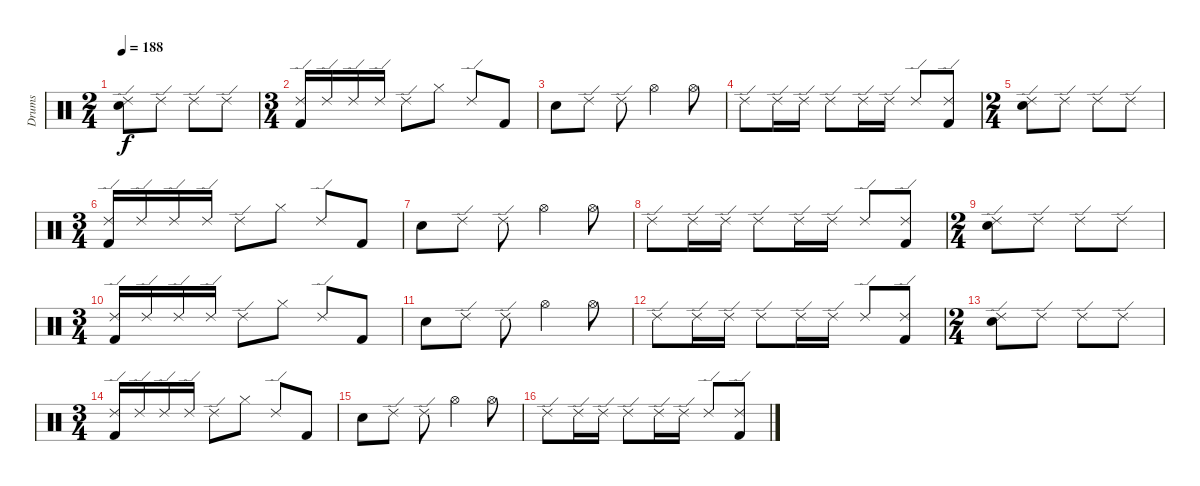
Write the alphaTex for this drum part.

\track ("Drums" "Drums") {instrument percussion}
\staff {score}
\articulation defaults
\ts (2 4)
\tempo 188
\clef neutral
\ks c
("Electric Snare (hit)" "Ride (edge) 2").8{dy f} "Ride (edge) 2".8 "Ride (edge) 2".8 "Ride (edge) 2".8 |
\ts (3 4)
("Ride (edge) 2" "Kick (hit) 2").16 "Ride (edge) 2".16 "Ride (edge) 2".16 "Ride (edge) 2".16 "Ride (edge) 2".8 "Hi-Hat (closed)".8 "Ride (edge) 2".8 "Kick (hit) 2".8 |
"Electric Snare (hit)".8 "Ride (edge) 2".8 "Ride (edge) 2".8 "Hi-Hat (open)".4 "Hi-Hat (open)".8 |
"Ride (edge) 2".8 "Ride (edge) 2".16 "Ride (edge) 2".16 "Ride (edge) 2".8 "Ride (edge) 2".16 "Ride (edge) 2".16 "Ride (edge) 2".8 ("Ride (edge) 2" "Kick (hit) 2").8 |
\ts (2 4)
("Electric Snare (hit)" "Ride (edge) 2").8 "Ride (edge) 2".8 "Ride (edge) 2".8 "Ride (edge) 2".8 |
\ts (3 4)
("Ride (edge) 2" "Kick (hit) 2").16 "Ride (edge) 2".16 "Ride (edge) 2".16 "Ride (edge) 2".16 "Ride (edge) 2".8 "Hi-Hat (closed)".8 "Ride (edge) 2".8 "Kick (hit) 2".8 |
"Electric Snare (hit)".8 "Ride (edge) 2".8 "Ride (edge) 2".8 "Hi-Hat (open)".4 "Hi-Hat (open)".8 |
"Ride (edge) 2".8 "Ride (edge) 2".16 "Ride (edge) 2".16 "Ride (edge) 2".8 "Ride (edge) 2".16 "Ride (edge) 2".16 "Ride (edge) 2".8 ("Ride (edge) 2" "Kick (hit) 2").8 |
\ts (2 4)
("Electric Snare (hit)" "Ride (edge) 2").8 "Ride (edge) 2".8 "Ride (edge) 2".8 "Ride (edge) 2".8 |
\ts (3 4)
("Ride (edge) 2" "Kick (hit) 2").16 "Ride (edge) 2".16 "Ride (edge) 2".16 "Ride (edge) 2".16 "Ride (edge) 2".8 "Hi-Hat (closed)".8 "Ride (edge) 2".8 "Kick (hit) 2".8 |
"Electric Snare (hit)".8 "Ride (edge) 2".8 "Ride (edge) 2".8 "Hi-Hat (open)".4 "Hi-Hat (open)".8 |
"Ride (edge) 2".8 "Ride (edge) 2".16 "Ride (edge) 2".16 "Ride (edge) 2".8 "Ride (edge) 2".16 "Ride (edge) 2".16 "Ride (edge) 2".8 ("Ride (edge) 2" "Kick (hit) 2").8 |
\ts (2 4)
("Electric Snare (hit)" "Ride (edge) 2").8 "Ride (edge) 2".8 "Ride (edge) 2".8 "Ride (edge) 2".8 |
\ts (3 4)
("Ride (edge) 2" "Kick (hit) 2").16 "Ride (edge) 2".16 "Ride (edge) 2".16 "Ride (edge) 2".16 "Ride (edge) 2".8 "Hi-Hat (closed)".8 "Ride (edge) 2".8 "Kick (hit) 2".8 |
"Electric Snare (hit)".8 "Ride (edge) 2".8 "Ride (edge) 2".8 "Hi-Hat (open)".4 "Hi-Hat (open)".8 |
"Ride (edge) 2".8 "Ride (edge) 2".16 "Ride (edge) 2".16 "Ride (edge) 2".8 "Ride (edge) 2".16 "Ride (edge) 2".16 "Ride (edge) 2".8 ("Ride (edge) 2" "Kick (hit) 2").8
